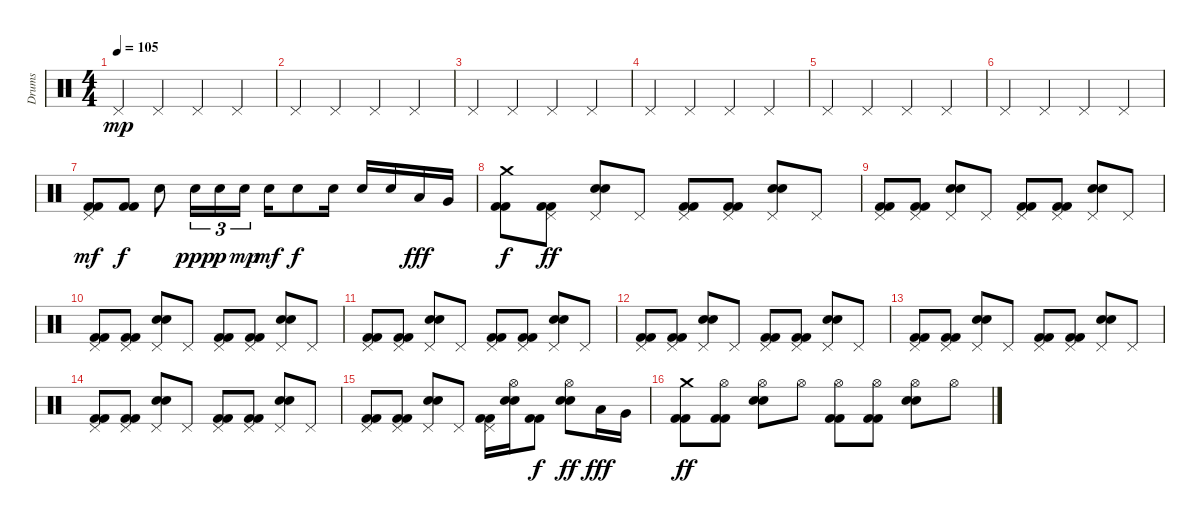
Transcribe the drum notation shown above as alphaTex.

\track ("Drums" "Drums") {instrument percussion}
\staff {score}
\articulation defaults
\ts (4 4)
\tempo 105
\clef neutral
\ks c "Pedal Hi-Hat (hit)".4{dy mp} "Pedal Hi-Hat (hit)".4 "Pedal Hi-Hat (hit)".4 "Pedal Hi-Hat (hit)".4
|
"Pedal Hi-Hat (hit)".4 "Pedal Hi-Hat (hit)".4 "Pedal Hi-Hat (hit)".4 "Pedal Hi-Hat (hit)".4 |
"Pedal Hi-Hat (hit)".4 "Pedal Hi-Hat (hit)".4 "Pedal Hi-Hat (hit)".4 "Pedal Hi-Hat (hit)".4 |
"Pedal Hi-Hat (hit)".4 "Pedal Hi-Hat (hit)".4 "Pedal Hi-Hat (hit)".4 "Pedal Hi-Hat (hit)".4 |
"Pedal Hi-Hat (hit)".4 "Pedal Hi-Hat (hit)".4 "Pedal Hi-Hat (hit)".4 "Pedal Hi-Hat (hit)".4 |
"Pedal Hi-Hat (hit)".4 "Pedal Hi-Hat (hit)".4 "Pedal Hi-Hat (hit)".4 "Pedal Hi-Hat (hit)".4 |
("Pedal Hi-Hat (hit)" "Kick (hit) 2" "Kick (hit) 2").8{dy mf} ("Kick (hit) 2" "Kick (hit) 2").8{dy f} "Electric Snare (hit)".8 "Electric Snare (hit)".16{tu (3 2) dy ppp} "Electric Snare (hit)".16{tu (3 2) dy p} "Electric Snare (hit)".16{tu (3 2) dy mp} "Electric Snare (hit)".16{dy mf} "Electric Snare (hit)".8{dy f} "Electric Snare (hit)".16 "Electric Snare (hit)".16 "Electric Snare (hit)".16 "Low Tom (hit)".16{dy fff} "Very Low Tom (hit)".16 |
("Crash medium (hit)" "Kick (hit) 2" "Kick (hit) 2").8{dy f} ("Pedal Hi-Hat (hit)" "Kick (hit) 2" "Kick (hit) 2").8{dy ff} ("Pedal Hi-Hat (hit)" "Electric Snare (hit)" "Snare (hit) 2").8 "Pedal Hi-Hat (hit)".8 ("Pedal Hi-Hat (hit)" "Kick (hit) 2" "Kick (hit) 2").8 ("Pedal Hi-Hat (hit)" "Kick (hit) 2" "Kick (hit) 2").8 ("Pedal Hi-Hat (hit)" "Electric Snare (hit)" "Snare (hit) 2").8 "Pedal Hi-Hat (hit)".8 |
("Pedal Hi-Hat (hit)" "Kick (hit) 2" "Kick (hit) 2").8 ("Pedal Hi-Hat (hit)" "Kick (hit) 2" "Kick (hit) 2").8 ("Pedal Hi-Hat (hit)" "Electric Snare (hit)" "Snare (hit) 2").8 "Pedal Hi-Hat (hit)".8 ("Pedal Hi-Hat (hit)" "Kick (hit) 2" "Kick (hit) 2").8 ("Pedal Hi-Hat (hit)" "Kick (hit) 2" "Kick (hit) 2").8 ("Pedal Hi-Hat (hit)" "Electric Snare (hit)" "Snare (hit) 2").8 "Pedal Hi-Hat (hit)".8 |
("Pedal Hi-Hat (hit)" "Kick (hit) 2" "Kick (hit) 2").8 ("Pedal Hi-Hat (hit)" "Kick (hit) 2" "Kick (hit) 2").8 ("Pedal Hi-Hat (hit)" "Electric Snare (hit)" "Snare (hit) 2").8 "Pedal Hi-Hat (hit)".8 ("Pedal Hi-Hat (hit)" "Kick (hit) 2" "Kick (hit) 2").8 ("Pedal Hi-Hat (hit)" "Kick (hit) 2" "Kick (hit) 2").8 ("Pedal Hi-Hat (hit)" "Electric Snare (hit)" "Snare (hit) 2").8 "Pedal Hi-Hat (hit)".8 |
("Pedal Hi-Hat (hit)" "Kick (hit) 2" "Kick (hit) 2").8 ("Pedal Hi-Hat (hit)" "Kick (hit) 2" "Kick (hit) 2").8 ("Pedal Hi-Hat (hit)" "Electric Snare (hit)" "Snare (hit) 2").8 "Pedal Hi-Hat (hit)".8 ("Pedal Hi-Hat (hit)" "Kick (hit) 2" "Kick (hit) 2").8 ("Pedal Hi-Hat (hit)" "Kick (hit) 2" "Kick (hit) 2").8 ("Pedal Hi-Hat (hit)" "Electric Snare (hit)" "Snare (hit) 2").8 "Pedal Hi-Hat (hit)".8 |
("Pedal Hi-Hat (hit)" "Kick (hit) 2" "Kick (hit) 2").8 ("Pedal Hi-Hat (hit)" "Kick (hit) 2" "Kick (hit) 2").8 ("Pedal Hi-Hat (hit)" "Electric Snare (hit)" "Snare (hit) 2").8 "Pedal Hi-Hat (hit)".8 ("Pedal Hi-Hat (hit)" "Kick (hit) 2" "Kick (hit) 2").8 ("Pedal Hi-Hat (hit)" "Kick (hit) 2" "Kick (hit) 2").8 ("Pedal Hi-Hat (hit)" "Electric Snare (hit)" "Snare (hit) 2").8 "Pedal Hi-Hat (hit)".8 |
("Pedal Hi-Hat (hit)" "Kick (hit) 2" "Kick (hit) 2").8 ("Pedal Hi-Hat (hit)" "Kick (hit) 2" "Kick (hit) 2").8 ("Pedal Hi-Hat (hit)" "Electric Snare (hit)" "Snare (hit) 2").8 "Pedal Hi-Hat (hit)".8 ("Pedal Hi-Hat (hit)" "Kick (hit) 2" "Kick (hit) 2").8 ("Pedal Hi-Hat (hit)" "Kick (hit) 2" "Kick (hit) 2").8 ("Pedal Hi-Hat (hit)" "Electric Snare (hit)" "Snare (hit) 2").8 "Pedal Hi-Hat (hit)".8 |
("Pedal Hi-Hat (hit)" "Kick (hit) 2" "Kick (hit) 2").8 ("Pedal Hi-Hat (hit)" "Kick (hit) 2" "Kick (hit) 2").8 ("Pedal Hi-Hat (hit)" "Electric Snare (hit)" "Snare (hit) 2").8 "Pedal Hi-Hat (hit)".8 ("Pedal Hi-Hat (hit)" "Kick (hit) 2" "Kick (hit) 2").8 ("Pedal Hi-Hat (hit)" "Kick (hit) 2" "Kick (hit) 2").8 ("Pedal Hi-Hat (hit)" "Electric Snare (hit)" "Snare (hit) 2").8 "Pedal Hi-Hat (hit)".8 |
("Pedal Hi-Hat (hit)" "Kick (hit) 2" "Kick (hit) 2").8 ("Pedal Hi-Hat (hit)" "Kick (hit) 2" "Kick (hit) 2").8 ("Pedal Hi-Hat (hit)" "Electric Snare (hit)" "Snare (hit) 2").8 "Pedal Hi-Hat (hit)".8 ("Pedal Hi-Hat (hit)" "Kick (hit) 2" "Kick (hit) 2").16 ("Hi-Hat (open)" "Electric Snare (hit)" "Snare (hit) 2").16 ("Kick (hit) 2" "Kick (hit) 2").8{dy f} ("Hi-Hat (open)" "Electric Snare (hit)" "Snare (hit) 2").8{dy ff} "Low Tom (hit)".16{dy fff} "Very Low Tom (hit)".16 |
("Crash medium (hit)" "Kick (hit) 2" "Kick (hit) 2").8{dy ff} ("Hi-Hat (open)" "Kick (hit) 2" "Kick (hit) 2").8 ("Hi-Hat (open)" "Electric Snare (hit)" "Snare (hit) 2").8 "Hi-Hat (open)".8 ("Hi-Hat (open)" "Kick (hit) 2" "Kick (hit) 2").8 ("Hi-Hat (open)" "Kick (hit) 2" "Kick (hit) 2").8 ("Hi-Hat (open)" "Electric Snare (hit)" "Snare (hit) 2").8 "Hi-Hat (open)".8
